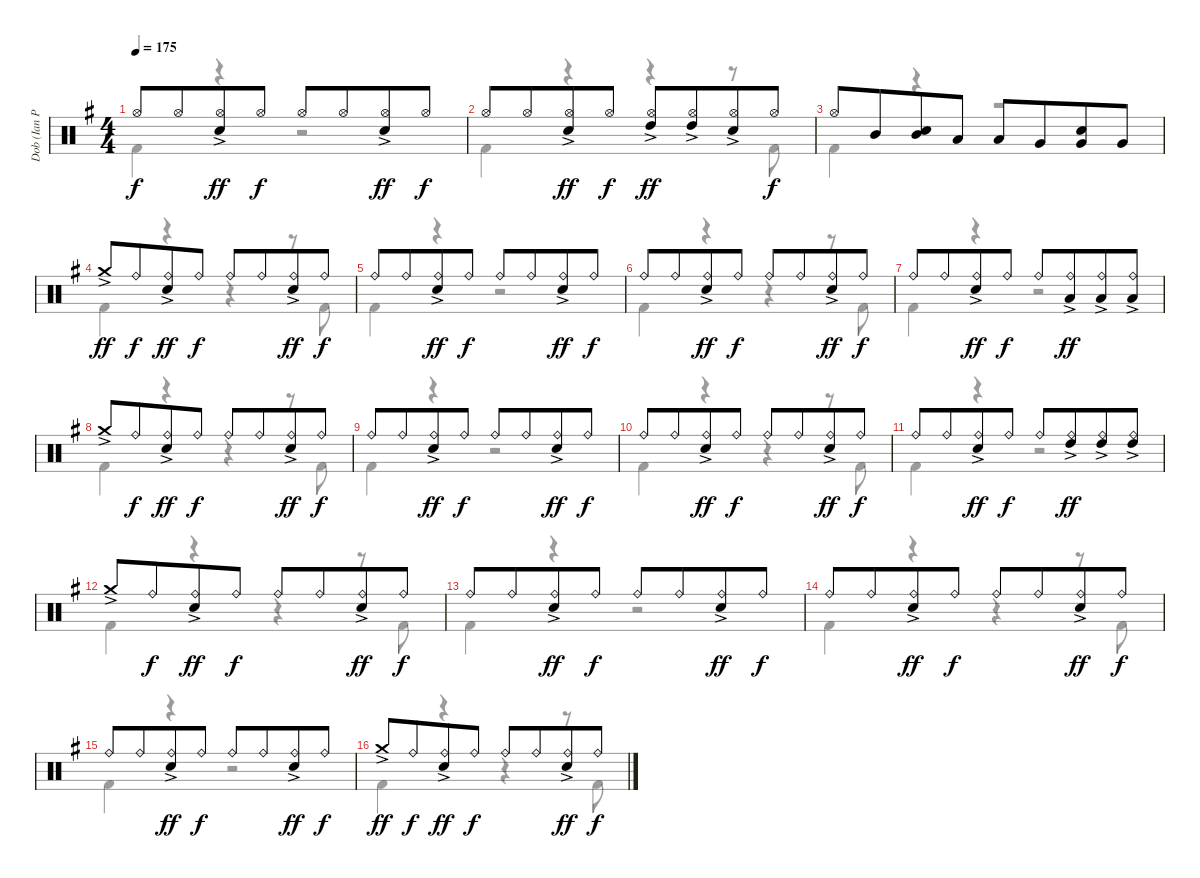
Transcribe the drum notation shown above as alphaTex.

\track ("Dob (Ian Paice)" "Dob (Ian P") {instrument percussion}
\staff {score}
\articulation defaults
\voice
\ts (4 4)
\tempo 175
\clef neutral
\ks g "Hi-Hat (open)".8{dy f} "Hi-Hat (open)".8{beam merge}
("Hi-Hat (open)" "Electric Snare (hit)"{ac}).8{dy ff} "Hi-Hat (open)".8{dy f} "Hi-Hat (open)".8 "Hi-Hat (open)".8{beam merge} ("Hi-Hat (open)" "Electric Snare (hit)"{ac}).8{dy ff} "Hi-Hat (open)".8{dy f} |
"Hi-Hat (open)".8 "Hi-Hat (open)".8{beam merge} ("Hi-Hat (open)" "Electric Snare (hit)"{ac}).8{dy ff} "Hi-Hat (open)".8{dy f} ("Hi-Hat (open)" "High Tom (hit)"{ac}).8{dy ff} ("Hi-Hat (open)" "High Tom (hit)"{ac}).8{beam merge} ("Hi-Hat (open)" "Electric Snare (hit)"{ac}).8 "Hi-Hat (open)".8{dy f} |
"Hi-Hat (open)".8 "Mid Tom (hit)".8{beam merge} ("Mid Tom (hit)" "Electric Snare (hit)").8 "Low Tom (hit)".8 "Low Tom (hit)".8 "Very Low Tom (hit)".8{beam merge} ("Electric Snare (hit)" "Very Low Tom (hit)").8 "Very Low Tom (hit)".8 |
"Crash medium (hit)"{ac}.8{dy ff} "Ride (bell)".8{dy f beam merge} ("Ride (bell)" "Electric Snare (hit)"{ac}).8{dy ff} "Ride (bell)".8{dy f} "Ride (bell)".8 "Ride (bell)".8{beam merge} ("Ride (bell)" "Electric Snare (hit)"{ac}).8{dy ff} "Ride (bell)".8{dy f} |
"Ride (bell)".8 "Ride (bell)".8{beam merge} ("Ride (bell)" "Electric Snare (hit)"{ac}).8{dy ff} "Ride (bell)".8{dy f} "Ride (bell)".8 "Ride (bell)".8{beam merge} ("Ride (bell)" "Electric Snare (hit)"{ac}).8{dy ff} "Ride (bell)".8{dy f} |
"Ride (bell)".8 "Ride (bell)".8{beam merge} ("Ride (bell)" "Electric Snare (hit)"{ac}).8{dy ff} "Ride (bell)".8{dy f} "Ride (bell)".8 "Ride (bell)".8{beam merge} ("Ride (bell)" "Electric Snare (hit)"{ac}).8{dy ff} "Ride (bell)".8{dy f} |
"Ride (bell)".8 "Ride (bell)".8{beam merge} ("Ride (bell)" "Electric Snare (hit)"{ac}).8{dy ff} "Ride (bell)".8{dy f} "Ride (bell)".8 ("Ride (bell)" "Low Tom (hit)"{ac}).8{dy ff beam merge} ("Ride (bell)" "Low Tom (hit)"{ac}).8 ("Ride (bell)" "Low Tom (hit)"{ac}).8 |
"Crash medium (hit)"{ac}.8 "Ride (bell)".8{dy f beam merge} ("Ride (bell)" "Electric Snare (hit)"{ac}).8{dy ff} "Ride (bell)".8{dy f} "Ride (bell)".8 "Ride (bell)".8{beam merge} ("Ride (bell)" "Electric Snare (hit)"{ac}).8{dy ff} "Ride (bell)".8{dy f} |
"Ride (bell)".8 "Ride (bell)".8{beam merge} ("Ride (bell)" "Electric Snare (hit)"{ac}).8{dy ff} "Ride (bell)".8{dy f} "Ride (bell)".8 "Ride (bell)".8{beam merge} ("Ride (bell)" "Electric Snare (hit)"{ac}).8{dy ff} "Ride (bell)".8{dy f} |
"Ride (bell)".8 "Ride (bell)".8{beam merge} ("Ride (bell)" "Electric Snare (hit)"{ac}).8{dy ff} "Ride (bell)".8{dy f} "Ride (bell)".8 "Ride (bell)".8{beam merge} ("Ride (bell)" "Electric Snare (hit)"{ac}).8{dy ff} "Ride (bell)".8{dy f} |
"Ride (bell)".8 "Ride (bell)".8{beam merge} ("Ride (bell)" "Electric Snare (hit)"{ac}).8{dy ff} "Ride (bell)".8{dy f} "Ride (bell)".8 ("Ride (bell)" "High Tom (hit)"{ac}).8{dy ff beam merge} ("Ride (bell)" "High Tom (hit)"{ac}).8 ("Ride (bell)" "High Tom (hit)"{ac}).8 |
"Crash medium (hit)"{ac}.8 "Ride (bell)".8{dy f beam merge} ("Ride (bell)" "Electric Snare (hit)"{ac}).8{dy ff} "Ride (bell)".8{dy f} "Ride (bell)".8 "Ride (bell)".8{beam merge} ("Ride (bell)" "Electric Snare (hit)"{ac}).8{dy ff} "Ride (bell)".8{dy f} |
"Ride (bell)".8 "Ride (bell)".8{beam merge} ("Ride (bell)" "Electric Snare (hit)"{ac}).8{dy ff} "Ride (bell)".8{dy f} "Ride (bell)".8 "Ride (bell)".8{beam merge} ("Ride (bell)" "Electric Snare (hit)"{ac}).8{dy ff} "Ride (bell)".8{dy f} |
"Ride (bell)".8 "Ride (bell)".8{beam merge} ("Ride (bell)" "Electric Snare (hit)"{ac}).8{dy ff} "Ride (bell)".8{dy f} "Ride (bell)".8 "Ride (bell)".8{beam merge} ("Ride (bell)" "Electric Snare (hit)"{ac}).8{dy ff} "Ride (bell)".8{dy f} |
"Ride (bell)".8 "Ride (bell)".8{beam merge} ("Ride (bell)" "Electric Snare (hit)"{ac}).8{dy ff} "Ride (bell)".8{dy f} "Ride (bell)".8 "Ride (bell)".8{beam merge} ("Ride (bell)" "Electric Snare (hit)"{ac}).8{dy ff} "Ride (bell)".8{dy f} |
"Crash medium (hit)"{ac}.8{dy ff} "Ride (bell)".8{dy f beam merge} ("Ride (bell)" "Electric Snare (hit)"{ac}).8{dy ff} "Ride (bell)".8{dy f} "Ride (bell)".8 "Ride (bell)".8{beam merge} ("Ride (bell)" "Electric Snare (hit)"{ac}).8{dy ff} "Ride (bell)".8{dy f}
\voice
\clef neutral
\ottava regular
\simile none
\ks g "Kick (hit) 2".4{dy f}
r.4 r.2 |
"Kick (hit) 2".4 r.4 r.4 r.8 "Kick (hit) 2".8 |
"Kick (hit) 2".4 r.4 r.2 |
"Kick (hit) 2".4 r.4 r.4 r.8 "Kick (hit) 2".8 |
"Kick (hit) 2".4 r.4 r.2 |
"Kick (hit) 2".4 r.4 r.4 r.8 "Kick (hit) 2".8 |
"Kick (hit) 2".4 r.4 r.2 |
"Kick (hit) 2".4 r.4 r.4 r.8 "Kick (hit) 2".8 |
"Kick (hit) 2".4 r.4 r.2 |
"Kick (hit) 2".4 r.4 r.4 r.8 "Kick (hit) 2".8 |
"Kick (hit) 2".4 r.4 r.2 |
"Kick (hit) 2".4 r.4 r.4 r.8 "Kick (hit) 2".8 |
"Kick (hit) 2".4 r.4 r.2 |
"Kick (hit) 2".4 r.4 r.4 r.8 "Kick (hit) 2".8 |
"Kick (hit) 2".4 r.4 r.2 |
"Kick (hit) 2".4 r.4 r.4 r.8 "Kick (hit) 2".8
